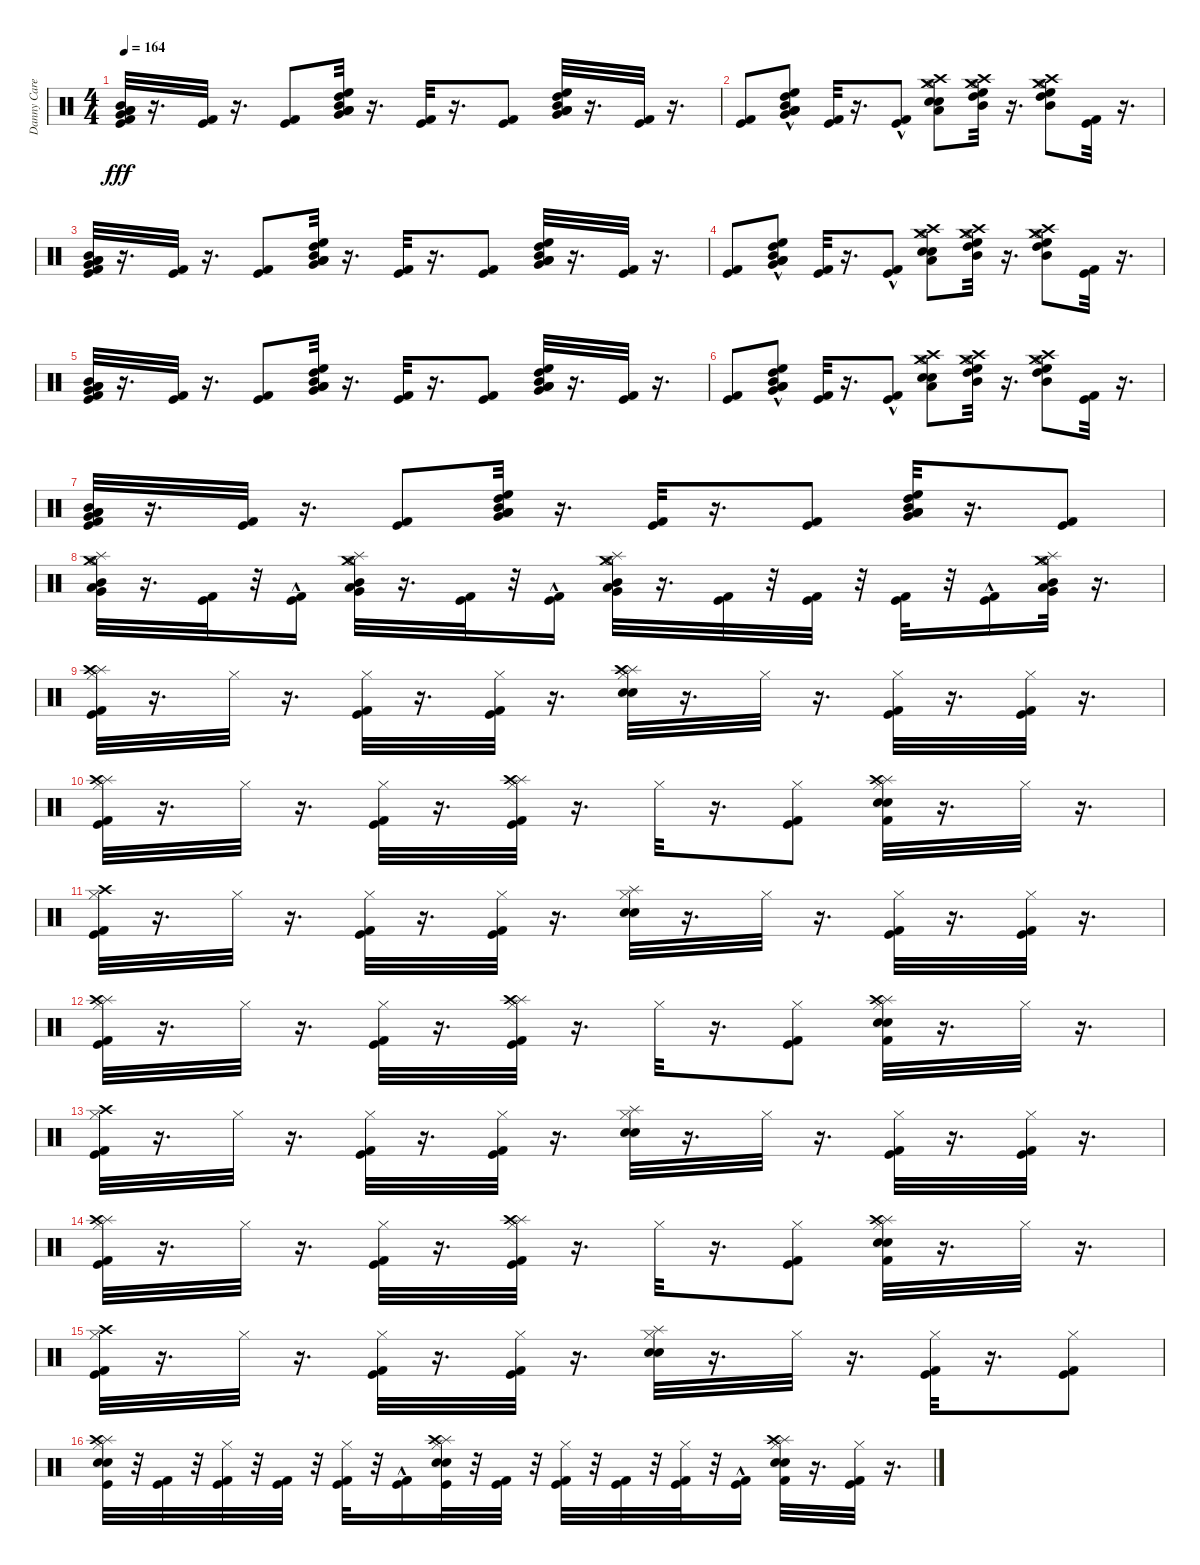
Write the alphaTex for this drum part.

\track ("Danny Carey" "Danny Care") {instrument percussion}
\staff {score}
\articulation defaults
\ts (4 4)
\tempo 164
\clef neutral
\ks c
("Kick (hit)" "Kick (hit) 2" "Low Floor Tom (hit)" "Very Low Tom (hit)" "Low Tom (hit)" "Mid Tom (hit)").32{dy fff} r.16{d} ("Kick (hit)" "Kick (hit) 2").32 r.16{d} ("Kick (hit)" "Kick (hit) 2").8 ("High Floor Tom (hit)" "High Tom (hit)" "Mid Tom (hit)" "Low Tom (hit)" "Very Low Tom (hit)" "Low Floor Tom (hit)").32 r.16{d} ("Kick (hit)" "Kick (hit) 2").32 r.16{d} ("Kick (hit) 2" "Kick (hit)").8 ("High Floor Tom (hit)" "High Tom (hit)" "Mid Tom (hit)" "Low Tom (hit)" "Very Low Tom (hit)" "Low Floor Tom (hit)").32 r.16{d} ("Kick (hit) 2" "Kick (hit)").32 r.16{d} |
("Kick (hit)" "Kick (hit) 2").8 ("High Floor Tom (hit)"{hac} "High Tom (hit)"{hac} "Mid Tom (hit)"{hac} "Low Tom (hit)" "Very Low Tom (hit)" "Low Floor Tom (hit)").8 ("Kick (hit) 2" "Kick (hit)").32 r.16{d} ("Kick (hit)"{hac} "Kick (hit) 2"{hac}).8 ("Hi-Hat (open)" "Crash medium (hit)" "Crash high (hit)" "Snare (hit) 2" "Electric Snare (hit)" "Low Floor Tom (hit)").8 ("Hi-Hat (open)" "Crash medium (hit)" "Crash high (hit)" "High Floor Tom (hit)" "High Tom (hit)" "Mid Tom (hit)").32 r.16{d} ("Hi-Hat (open)" "Crash medium (hit)" "Crash high (hit)" "High Floor Tom (hit)" "High Tom (hit)" "Mid Tom (hit)").8 ("Kick (hit)" "Kick (hit) 2").32 r.16{d} |
("Kick (hit)" "Kick (hit) 2" "Low Floor Tom (hit)" "Very Low Tom (hit)" "Low Tom (hit)" "Mid Tom (hit)").32 r.16{d} ("Kick (hit)" "Kick (hit) 2").32 r.16{d} ("Kick (hit)" "Kick (hit) 2").8 ("High Floor Tom (hit)" "High Tom (hit)" "Mid Tom (hit)" "Low Tom (hit)" "Very Low Tom (hit)" "Low Floor Tom (hit)").32 r.16{d} ("Kick (hit)" "Kick (hit) 2").32 r.16{d} ("Kick (hit) 2" "Kick (hit)").8 ("High Floor Tom (hit)" "High Tom (hit)" "Mid Tom (hit)" "Low Tom (hit)" "Very Low Tom (hit)" "Low Floor Tom (hit)").32 r.16{d} ("Kick (hit) 2" "Kick (hit)").32 r.16{d} |
("Kick (hit)" "Kick (hit) 2").8 ("High Floor Tom (hit)"{hac} "High Tom (hit)"{hac} "Mid Tom (hit)"{hac} "Low Tom (hit)" "Very Low Tom (hit)" "Low Floor Tom (hit)").8 ("Kick (hit) 2" "Kick (hit)").32 r.16{d} ("Kick (hit)"{hac} "Kick (hit) 2"{hac}).8 ("Hi-Hat (open)" "Crash medium (hit)" "Crash high (hit)" "Snare (hit) 2" "Electric Snare (hit)" "Low Floor Tom (hit)").8 ("Hi-Hat (open)" "Crash medium (hit)" "Crash high (hit)" "High Floor Tom (hit)" "High Tom (hit)" "Mid Tom (hit)").32 r.16{d} ("Hi-Hat (open)" "Crash medium (hit)" "Crash high (hit)" "High Floor Tom (hit)" "High Tom (hit)" "Mid Tom (hit)").8 ("Kick (hit)" "Kick (hit) 2").32 r.16{d} |
("Kick (hit)" "Kick (hit) 2" "Low Floor Tom (hit)" "Very Low Tom (hit)" "Low Tom (hit)" "Mid Tom (hit)").32 r.16{d} ("Kick (hit)" "Kick (hit) 2").32 r.16{d} ("Kick (hit)" "Kick (hit) 2").8 ("High Floor Tom (hit)" "High Tom (hit)" "Mid Tom (hit)" "Low Tom (hit)" "Very Low Tom (hit)" "Low Floor Tom (hit)").32 r.16{d} ("Kick (hit)" "Kick (hit) 2").32 r.16{d} ("Kick (hit) 2" "Kick (hit)").8 ("High Floor Tom (hit)" "High Tom (hit)" "Mid Tom (hit)" "Low Tom (hit)" "Very Low Tom (hit)" "Low Floor Tom (hit)").32 r.16{d} ("Kick (hit) 2" "Kick (hit)").32 r.16{d} |
("Kick (hit)" "Kick (hit) 2").8 ("High Floor Tom (hit)"{hac} "High Tom (hit)"{hac} "Mid Tom (hit)"{hac} "Low Tom (hit)" "Very Low Tom (hit)" "Low Floor Tom (hit)").8 ("Kick (hit) 2" "Kick (hit)").32 r.16{d} ("Kick (hit)"{hac} "Kick (hit) 2"{hac}).8 ("Hi-Hat (open)" "Crash medium (hit)" "Crash high (hit)" "Snare (hit) 2" "Electric Snare (hit)" "Low Floor Tom (hit)").8 ("Hi-Hat (open)" "Crash medium (hit)" "Crash high (hit)" "High Floor Tom (hit)" "High Tom (hit)" "Mid Tom (hit)").32 r.16{d} ("Hi-Hat (open)" "Crash medium (hit)" "Crash high (hit)" "High Floor Tom (hit)" "High Tom (hit)" "Mid Tom (hit)").8 ("Kick (hit)" "Kick (hit) 2").32 r.16{d} |
("Kick (hit)" "Kick (hit) 2" "Low Floor Tom (hit)" "Very Low Tom (hit)" "Low Tom (hit)" "Mid Tom (hit)").32 r.16{d} ("Kick (hit)" "Kick (hit) 2").32 r.16{d} ("Kick (hit)" "Kick (hit) 2").8 ("High Floor Tom (hit)" "High Tom (hit)" "Mid Tom (hit)" "Low Tom (hit)" "Very Low Tom (hit)" "Low Floor Tom (hit)").32 r.16{d} ("Kick (hit)" "Kick (hit) 2").32 r.16{d} ("Kick (hit) 2" "Kick (hit)").8 ("High Floor Tom (hit)" "High Tom (hit)" "Mid Tom (hit)" "Low Tom (hit)" "Very Low Tom (hit)" "Low Floor Tom (hit)").32 r.16{d} ("Kick (hit) 2" "Kick (hit)").8 |
("Crash medium (hit)" "Mid Tom (hit)" "Very Low Tom (hit)" "Hi-Hat (open)" "Low Floor Tom (hit)" "Splash (hit)").32 r.16{d} ("Kick (hit)" "Kick (hit) 2").32 r.32 ("Kick (hit)"{hac} "Kick (hit) 2"{hac}).16 ("Crash medium (hit)" "Mid Tom (hit)" "Very Low Tom (hit)" "Hi-Hat (open)" "Low Floor Tom (hit)" "Splash (hit)").32 r.16{d} ("Kick (hit)" "Kick (hit) 2").32 r.32 ("Kick (hit)"{hac} "Kick (hit) 2"{hac}).16 ("Crash medium (hit)" "Mid Tom (hit)" "Very Low Tom (hit)" "Hi-Hat (open)" "Low Floor Tom (hit)" "Splash (hit)").32 r.16{d} ("Kick (hit)" "Kick (hit) 2").32 r.32 ("Kick (hit)" "Kick (hit) 2").32 r.32 ("Kick (hit)" "Kick (hit) 2").32 r.32 ("Kick (hit)"{hac} "Kick (hit) 2"{hac}).16 ("Crash medium (hit)" "Mid Tom (hit)" "Very Low Tom (hit)" "Splash (hit)" "Hi-Hat (open)" "Low Floor Tom (hit)").32 r.16{d} |
("Splash (hit)" "Crash high (hit)" "Hi-Hat (closed)" "Kick (hit)" "Kick (hit) 2").32 r.16{d} "Hi-Hat (closed)".32 r.16{d} ("Hi-Hat (closed)" "Kick (hit)" "Kick (hit) 2").32 r.16{d} ("Hi-Hat (closed)" "Kick (hit)" "Kick (hit) 2").32 r.16{d} ("Splash (hit)" "Crash high (hit)" "Hi-Hat (closed)" "Electric Snare (hit)" "Snare (hit) 2").32 r.16{d} "Hi-Hat (closed)".32 r.16{d} ("Hi-Hat (closed)" "Kick (hit)" "Kick (hit) 2").32 r.16{d} ("Hi-Hat (closed)" "Kick (hit) 2" "Kick (hit)").32 r.16{d} |
("Splash (hit)" "Crash high (hit)" "Hi-Hat (closed)" "Kick (hit)" "Kick (hit) 2").32 r.16{d} "Hi-Hat (closed)".32 r.16{d} ("Hi-Hat (closed)" "Kick (hit)" "Kick (hit) 2").32 r.16{d} ("Splash (hit)" "Crash high (hit)" "Hi-Hat (closed)" "Kick (hit)" "Kick (hit) 2").32 r.16{d} "Hi-Hat (closed)".32 r.16{d} ("Hi-Hat (closed)" "Kick (hit)" "Kick (hit) 2").8 ("Splash (hit)" "Crash high (hit)" "Electric Snare (hit)" "Snare (hit) 2" "Hi-Hat (closed)" "Kick (hit) 2").32 r.16{d} "Hi-Hat (closed)".32 r.16{d} |
("Crash high (hit)" "Hi-Hat (closed)" "Kick (hit)" "Kick (hit) 2").32 r.16{d} "Hi-Hat (closed)".32 r.16{d} ("Hi-Hat (closed)" "Kick (hit)" "Kick (hit) 2").32 r.16{d} ("Hi-Hat (closed)" "Kick (hit)" "Kick (hit) 2").32 r.16{d} ("Splash (hit)" "Hi-Hat (closed)" "Electric Snare (hit)" "Snare (hit) 2").32 r.16{d} "Hi-Hat (closed)".32 r.16{d} ("Hi-Hat (closed)" "Kick (hit)" "Kick (hit) 2").32 r.16{d} ("Hi-Hat (closed)" "Kick (hit) 2" "Kick (hit)").32 r.16{d} |
("Splash (hit)" "Crash high (hit)" "Hi-Hat (closed)" "Kick (hit)" "Kick (hit) 2").32 r.16{d} "Hi-Hat (closed)".32 r.16{d} ("Hi-Hat (closed)" "Kick (hit)" "Kick (hit) 2").32 r.16{d} ("Splash (hit)" "Crash high (hit)" "Hi-Hat (closed)" "Kick (hit)" "Kick (hit) 2").32 r.16{d} "Hi-Hat (closed)".32 r.16{d} ("Hi-Hat (closed)" "Kick (hit)" "Kick (hit) 2").8 ("Splash (hit)" "Crash high (hit)" "Electric Snare (hit)" "Snare (hit) 2" "Hi-Hat (closed)" "Kick (hit) 2").32 r.16{d} "Hi-Hat (closed)".32 r.16{d} |
("Crash high (hit)" "Hi-Hat (closed)" "Kick (hit)" "Kick (hit) 2").32 r.16{d} "Hi-Hat (closed)".32 r.16{d} ("Hi-Hat (closed)" "Kick (hit)" "Kick (hit) 2").32 r.16{d} ("Hi-Hat (closed)" "Kick (hit)" "Kick (hit) 2").32 r.16{d} ("Splash (hit)" "Hi-Hat (closed)" "Electric Snare (hit)" "Snare (hit) 2").32 r.16{d} "Hi-Hat (closed)".32 r.16{d} ("Hi-Hat (closed)" "Kick (hit)" "Kick (hit) 2").32 r.16{d} ("Hi-Hat (closed)" "Kick (hit) 2" "Kick (hit)").32 r.16{d} |
("Splash (hit)" "Crash high (hit)" "Hi-Hat (closed)" "Kick (hit)" "Kick (hit) 2").32 r.16{d} "Hi-Hat (closed)".32 r.16{d} ("Hi-Hat (closed)" "Kick (hit)" "Kick (hit) 2").32 r.16{d} ("Splash (hit)" "Crash high (hit)" "Hi-Hat (closed)" "Kick (hit)" "Kick (hit) 2").32 r.16{d} "Hi-Hat (closed)".32 r.16{d} ("Hi-Hat (closed)" "Kick (hit)" "Kick (hit) 2").8 ("Splash (hit)" "Crash high (hit)" "Electric Snare (hit)" "Snare (hit) 2" "Hi-Hat (closed)" "Kick (hit) 2").32 r.16{d} "Hi-Hat (closed)".32 r.16{d} |
("Crash high (hit)" "Hi-Hat (closed)" "Kick (hit)" "Kick (hit) 2").32 r.16{d} "Hi-Hat (closed)".32 r.16{d} ("Hi-Hat (closed)" "Kick (hit)" "Kick (hit) 2").32 r.16{d} ("Hi-Hat (closed)" "Kick (hit)" "Kick (hit) 2").32 r.16{d} ("Splash (hit)" "Hi-Hat (closed)" "Electric Snare (hit)" "Snare (hit) 2").32 r.16{d} "Hi-Hat (closed)".32 r.16{d} ("Hi-Hat (closed)" "Kick (hit)" "Kick (hit) 2").32 r.16{d} ("Hi-Hat (closed)" "Kick (hit) 2" "Kick (hit)").8 |
("Snare (hit) 2" "Electric Snare (hit)" "Splash (hit)" "Crash high (hit)" "Hi-Hat (closed)" "Kick (hit)").32 r.32 ("Kick (hit)" "Kick (hit) 2").32 r.32 ("Kick (hit)" "Kick (hit) 2" "Hi-Hat (closed)").32 r.32 ("Kick (hit)" "Kick (hit) 2").32 r.32 ("Hi-Hat (closed)" "Kick (hit)" "Kick (hit) 2").32 r.32 ("Kick (hit)" "Kick (hit) 2"{hac}).16 ("Snare (hit) 2" "Electric Snare (hit)" "Splash (hit)" "Crash high (hit)" "Hi-Hat (closed)" "Kick (hit)").32 r.32 ("Kick (hit)" "Kick (hit) 2").32 r.32 ("Kick (hit)" "Kick (hit) 2" "Hi-Hat (closed)").32 r.32 ("Kick (hit)" "Kick (hit) 2").32 r.32 ("Hi-Hat (closed)" "Kick (hit)" "Kick (hit) 2").32 r.32 ("Kick (hit)"{hac} "Kick (hit) 2").16 ("Splash (hit)" "Crash high (hit)" "Electric Snare (hit)" "Snare (hit) 2" "Hi-Hat (closed)" "Kick (hit) 2").32 r.16{d} ("Kick (hit)" "Kick (hit) 2" "Hi-Hat (closed)").32 r.16{d}
